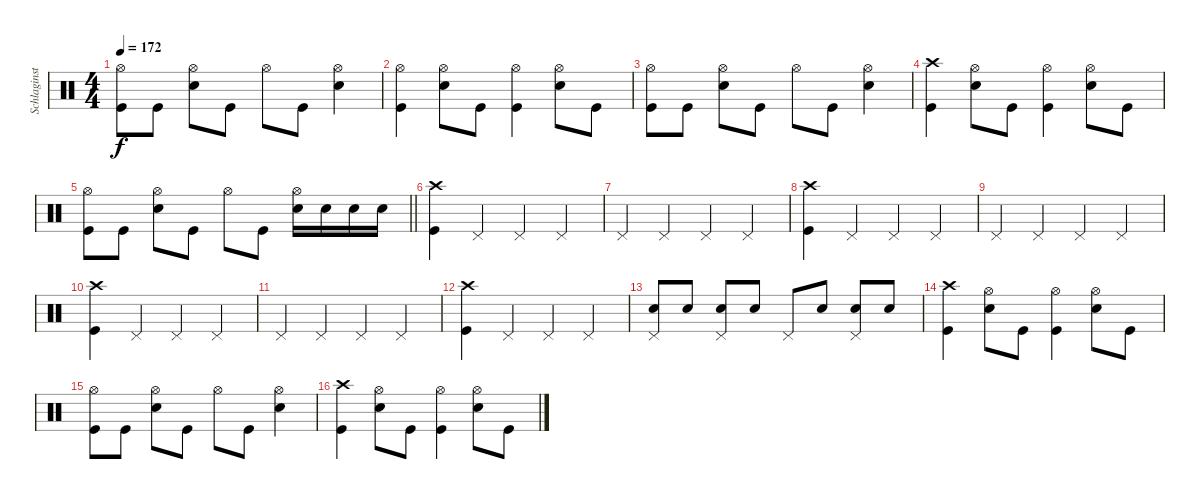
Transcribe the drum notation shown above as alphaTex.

\track ("Schlaginstrumente - Auswahl" "Schlaginst") {instrument percussion}
\staff {score}
\articulation defaults
\ts (4 4)
\tempo 172
\clef neutral
\ks c
("Hi-Hat (open)" "Kick (hit)").8{dy f} "Kick (hit)".8 ("Hi-Hat (open)" "Snare (hit) 2").8 "Kick (hit)".8 "Hi-Hat (open)".8 "Kick (hit)".8 ("Hi-Hat (open)" "Snare (hit) 2").4 |
("Hi-Hat (open)" "Kick (hit)").4 ("Hi-Hat (open)" "Snare (hit) 2").8 "Kick (hit)".8 ("Hi-Hat (open)" "Kick (hit)").4 ("Hi-Hat (open)" "Snare (hit) 2").8 "Kick (hit)".8 |
("Hi-Hat (open)" "Kick (hit)").8 "Kick (hit)".8 ("Hi-Hat (open)" "Snare (hit) 2").8 "Kick (hit)".8 "Hi-Hat (open)".8 "Kick (hit)".8 ("Hi-Hat (open)" "Snare (hit) 2").4 |
("Crash high (hit)" "Kick (hit)").4 ("Hi-Hat (open)" "Snare (hit) 2").8 "Kick (hit)".8 ("Hi-Hat (open)" "Kick (hit)").4 ("Hi-Hat (open)" "Snare (hit) 2").8 "Kick (hit)".8 |
\barLineRight lightlight
("Hi-Hat (open)" "Kick (hit)").8 "Kick (hit)".8 ("Hi-Hat (open)" "Snare (hit) 2").8 "Kick (hit)".8 "Hi-Hat (open)".8 "Kick (hit)".8 ("Hi-Hat (open)" "Snare (hit) 2").16 "Snare (hit) 2".16 "Snare (hit) 2".16 "Snare (hit) 2".16 |
("Crash high (hit)" "Kick (hit)").4 "Pedal Hi-Hat (hit)".4 "Pedal Hi-Hat (hit)".4 "Pedal Hi-Hat (hit)".4 |
"Pedal Hi-Hat (hit)".4 "Pedal Hi-Hat (hit)".4 "Pedal Hi-Hat (hit)".4 "Pedal Hi-Hat (hit)".4 |
("Crash high (hit)" "Kick (hit)").4 "Pedal Hi-Hat (hit)".4 "Pedal Hi-Hat (hit)".4 "Pedal Hi-Hat (hit)".4 |
"Pedal Hi-Hat (hit)".4 "Pedal Hi-Hat (hit)".4 "Pedal Hi-Hat (hit)".4 "Pedal Hi-Hat (hit)".4 |
("Crash high (hit)" "Kick (hit)").4 "Pedal Hi-Hat (hit)".4 "Pedal Hi-Hat (hit)".4 "Pedal Hi-Hat (hit)".4 |
"Pedal Hi-Hat (hit)".4 "Pedal Hi-Hat (hit)".4 "Pedal Hi-Hat (hit)".4 "Pedal Hi-Hat (hit)".4 |
("Crash high (hit)" "Kick (hit)").4 "Pedal Hi-Hat (hit)".4 "Pedal Hi-Hat (hit)".4 "Pedal Hi-Hat (hit)".4 |
("Pedal Hi-Hat (hit)" "Snare (hit) 2").8 "Snare (hit) 2".8 ("Pedal Hi-Hat (hit)" "Snare (hit) 2").8 "Snare (hit) 2".8 "Pedal Hi-Hat (hit)".8 "Snare (hit) 2".8 ("Pedal Hi-Hat (hit)" "Snare (hit) 2").8 "Snare (hit) 2".8 |
("Crash high (hit)" "Kick (hit)").4 ("Hi-Hat (open)" "Snare (hit) 2").8 "Kick (hit)".8 ("Hi-Hat (open)" "Kick (hit)").4 ("Hi-Hat (open)" "Snare (hit) 2").8 "Kick (hit)".8 |
("Hi-Hat (open)" "Kick (hit)").8 "Kick (hit)".8 ("Hi-Hat (open)" "Snare (hit) 2").8 "Kick (hit)".8 "Hi-Hat (open)".8 "Kick (hit)".8 ("Hi-Hat (open)" "Snare (hit) 2").4 |
("Crash high (hit)" "Kick (hit)").4 ("Hi-Hat (open)" "Snare (hit) 2").8 "Kick (hit)".8 ("Hi-Hat (open)" "Kick (hit)").4 ("Hi-Hat (open)" "Snare (hit) 2").8 "Kick (hit)".8
